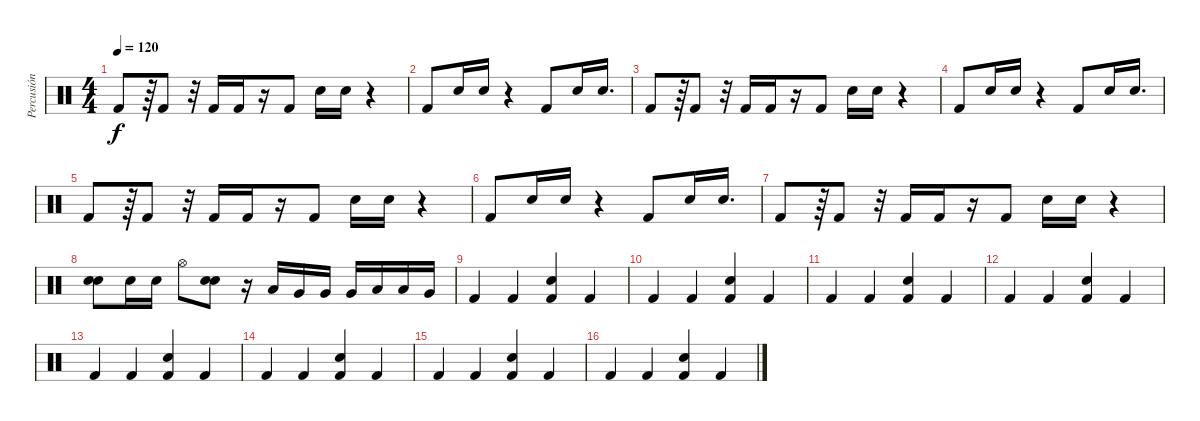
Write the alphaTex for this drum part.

\track ("Percusión" "Percusión") {instrument percussion}
\staff {score}
\articulation defaults
\ts (4 4)
\tempo 120
\clef neutral
\ks c "Kick (hit) 2".8{dy f}
r.64 "Kick (hit) 2".8 r.32 "Kick (hit) 2".16 "Kick (hit) 2".16 r.16 "Kick (hit) 2".8 "Snare (hit) 2".16 "Snare (hit) 2".16 r.4 |
"Kick (hit) 2".8 "Snare (hit) 2".16 "Snare (hit) 2".16 r.4 "Kick (hit) 2".8 "Snare (hit) 2".16 "Snare (hit) 2".16{d} |
"Kick (hit) 2".8 r.64 "Kick (hit) 2".8 r.32 "Kick (hit) 2".16 "Kick (hit) 2".16 r.16 "Kick (hit) 2".8 "Snare (hit) 2".16 "Snare (hit) 2".16 r.4 |
"Kick (hit) 2".8 "Snare (hit) 2".16 "Snare (hit) 2".16 r.4 "Kick (hit) 2".8 "Snare (hit) 2".16 "Snare (hit) 2".16{d} |
"Kick (hit) 2".8 r.64 "Kick (hit) 2".8 r.32 "Kick (hit) 2".16 "Kick (hit) 2".16 r.16 "Kick (hit) 2".8 "Snare (hit) 2".16 "Snare (hit) 2".16 r.4 |
"Kick (hit) 2".8 "Snare (hit) 2".16 "Snare (hit) 2".16 r.4 "Kick (hit) 2".8 "Snare (hit) 2".16 "Snare (hit) 2".16{d} |
"Kick (hit) 2".8 r.64 "Kick (hit) 2".8 r.32 "Kick (hit) 2".16 "Kick (hit) 2".16 r.16 "Kick (hit) 2".8 "Snare (hit) 2".16 "Snare (hit) 2".16 r.4 |
("Electric Snare (hit)" "Snare (hit) 2").8 "Snare (hit) 2".16 "Snare (hit) 2".16 "Hi-Hat (open)".8 ("Electric Snare (hit)" "Snare (hit) 2").8 r.16 "Low Floor Tom (hit)".16 "Very Low Tom (hit)".16 "Very Low Tom (hit)".16 "Very Low Tom (hit)".16 "Low Floor Tom (hit)".16 "Low Floor Tom (hit)".16 "Very Low Tom (hit)".16 |
"Kick (hit) 2".4 "Kick (hit) 2".4 ("Kick (hit) 2" "Snare (hit) 2").4 "Kick (hit) 2".4 |
"Kick (hit) 2".4 "Kick (hit) 2".4 ("Kick (hit) 2" "Snare (hit) 2").4 "Kick (hit) 2".4 |
"Kick (hit) 2".4 "Kick (hit) 2".4 ("Kick (hit) 2" "Snare (hit) 2").4 "Kick (hit) 2".4 |
"Kick (hit) 2".4 "Kick (hit) 2".4 ("Kick (hit) 2" "Snare (hit) 2").4 "Kick (hit) 2".4 |
"Kick (hit) 2".4 "Kick (hit) 2".4 ("Kick (hit) 2" "Snare (hit) 2").4 "Kick (hit) 2".4 |
"Kick (hit) 2".4 "Kick (hit) 2".4 ("Kick (hit) 2" "Snare (hit) 2").4 "Kick (hit) 2".4 |
"Kick (hit) 2".4 "Kick (hit) 2".4 ("Kick (hit) 2" "Snare (hit) 2").4 "Kick (hit) 2".4 |
"Kick (hit) 2".4 "Kick (hit) 2".4 ("Kick (hit) 2" "Snare (hit) 2").4 "Kick (hit) 2".4
